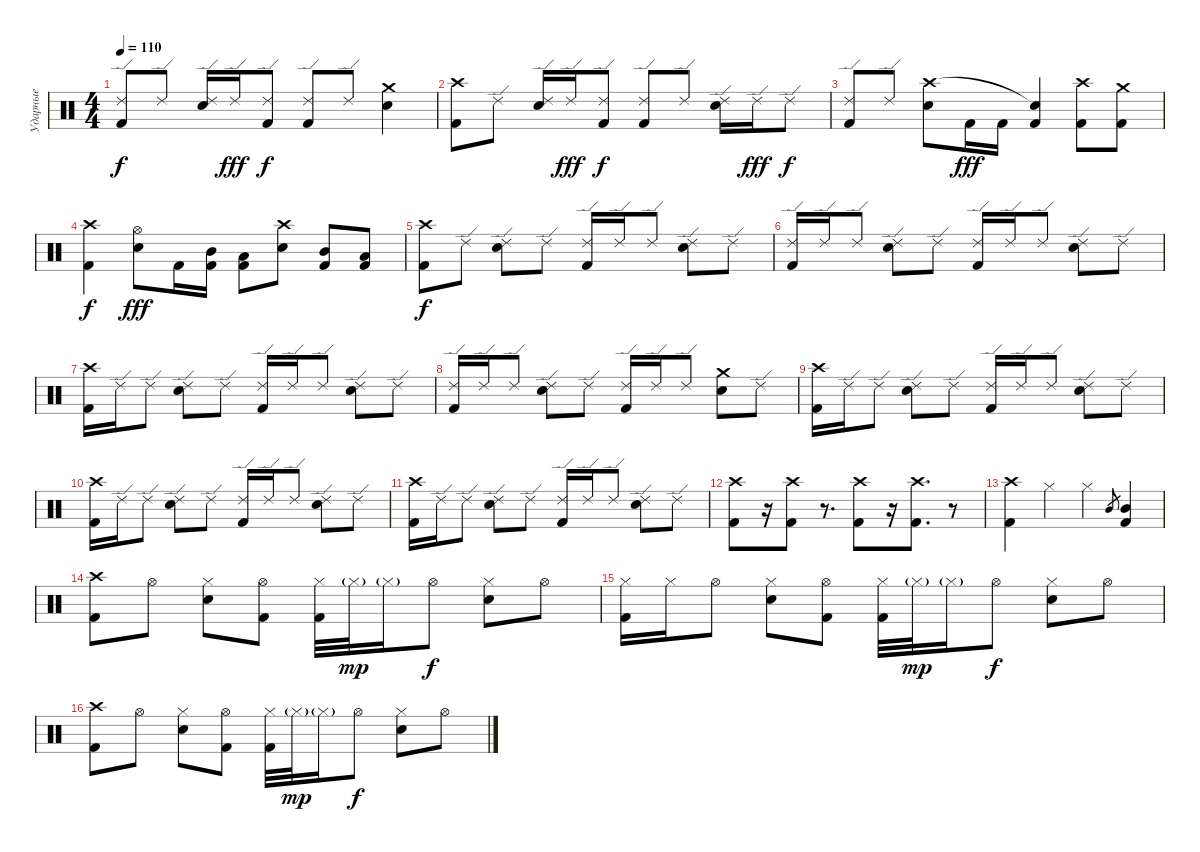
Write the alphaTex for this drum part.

\track ("Ударные" "Ударные") {instrument percussion}
\staff {score}
\articulation defaults
\ts (4 4)
\tempo 110
\clef neutral
\ks c
("Kick (hit) 2" "Ride (edge) 2").8{dy f} "Ride (edge) 2".8 ("Electric Snare (hit)" "Ride (edge) 2").16 "Ride (edge) 2".16{dy fff} ("Kick (hit) 2" "Ride (edge) 2").8{dy f} ("Kick (hit) 2" "Ride (edge) 2").8 "Ride (edge) 2".8 ("Electric Snare (hit)" "Crash medium (hit)").4 |
("Kick (hit) 2" "Crash high (hit)").8 "Ride (edge) 2".8 ("Electric Snare (hit)" "Ride (edge) 2").16 "Ride (edge) 2".16{dy fff} ("Kick (hit) 2" "Ride (edge) 2").8{dy f} ("Kick (hit) 2" "Ride (edge) 2").8 "Ride (edge) 2".8 ("Electric Snare (hit)" "Ride (edge) 2").16 "Ride (edge) 2".16{dy fff} "Ride (edge) 2".8{dy f} |
("Kick (hit) 2" "Ride (edge) 2").8 "Ride (edge) 2".8 ("Electric Snare (hit)" "Crash high (hit)").8 "Kick (hit) 2".16{dy fff} "Kick (hit) 2".16 ("Kick (hit) 2" "Snare (hit)"{t}).4 ("Kick (hit) 2" "Crash high (hit)").8 ("Kick (hit) 2" "Crash medium (hit)").8 |
("Kick (hit) 2" "Crash high (hit)").4{dy f} ("Electric Snare (hit)" "Hi-Hat (open)").8{dy fff} "Kick (hit) 2".16 ("Kick (hit) 2" "Mid Tom (hit)").16 ("Kick (hit) 2" "Low Tom (hit)").8 ("Electric Snare (hit)" "Crash high (hit)").8 ("Kick (hit) 2" "Mid Tom (hit)").8 ("Kick (hit) 2" "Low Tom (hit)").8 |
("Kick (hit) 2" "Crash high (hit)").8{dy f} "Ride (edge) 2".8 ("Electric Snare (hit)" "Ride (edge) 2").8 "Ride (edge) 2".8 ("Kick (hit) 2" "Ride (edge) 2").16 "Ride (edge) 2".16 "Ride (edge) 2".8 ("Electric Snare (hit)" "Ride (edge) 2").8 "Ride (edge) 2".8 |
("Kick (hit) 2" "Ride (edge) 2").16 "Ride (edge) 2".16 "Ride (edge) 2".8 ("Electric Snare (hit)" "Ride (edge) 2").8 "Ride (edge) 2".8 ("Kick (hit) 2" "Ride (edge) 2").16 "Ride (edge) 2".16 "Ride (edge) 2".8 ("Electric Snare (hit)" "Ride (edge) 2").8 "Ride (edge) 2".8 |
("Kick (hit) 2" "Crash high (hit)").16 "Ride (edge) 2".16 "Ride (edge) 2".8 ("Electric Snare (hit)" "Ride (edge) 2").8 "Ride (edge) 2".8 ("Kick (hit) 2" "Ride (edge) 2").16 "Ride (edge) 2".16 "Ride (edge) 2".8 ("Electric Snare (hit)" "Ride (edge) 2").8 "Ride (edge) 2".8 |
("Kick (hit) 2" "Ride (edge) 2").16 "Ride (edge) 2".16 "Ride (edge) 2".8 ("Electric Snare (hit)" "Ride (edge) 2").8 "Ride (edge) 2".8 ("Kick (hit) 2" "Ride (edge) 2").16 "Ride (edge) 2".16 "Ride (edge) 2".8 ("Electric Snare (hit)" "Crash medium (hit)").8 "Ride (edge) 2".8 |
("Kick (hit) 2" "Crash high (hit)").16 "Ride (edge) 2".16 "Ride (edge) 2".8 ("Electric Snare (hit)" "Ride (edge) 2").8 "Ride (edge) 2".8 ("Kick (hit) 2" "Ride (edge) 2").16 "Ride (edge) 2".16 "Ride (edge) 2".8 ("Electric Snare (hit)" "Ride (edge) 2").8 "Ride (edge) 2".8 |
("Kick (hit) 2" "Crash high (hit)").16 "Ride (edge) 2".16 "Ride (edge) 2".8 ("Electric Snare (hit)" "Ride (edge) 2").8 "Ride (edge) 2".8 ("Kick (hit) 2" "Ride (edge) 2").16 "Ride (edge) 2".16 "Ride (edge) 2".8 ("Electric Snare (hit)" "Ride (edge) 2").8 "Ride (edge) 2".8 |
("Kick (hit) 2" "Crash high (hit)").16 "Ride (edge) 2".16 "Ride (edge) 2".8 ("Electric Snare (hit)" "Ride (edge) 2").8 "Ride (edge) 2".8 ("Kick (hit) 2" "Ride (edge) 2").16 "Ride (edge) 2".16 "Ride (edge) 2".8 ("Electric Snare (hit)" "Ride (edge) 2").8 "Ride (edge) 2".8 |
("Kick (hit) 2" "Crash high (hit)").8 r.16 ("Kick (hit) 2" "Crash high (hit)").8 r.8{d} ("Kick (hit) 2" "Crash high (hit)").8 r.16 ("Kick (hit) 2" "Crash high (hit)").8{d} r.8 |
("Kick (hit) 2" "Crash high (hit)").4 "Hi-Hat (closed)".4 "Hi-Hat (closed)".4 "Mid Tom (hit)".8{gr} ("Kick (hit) 2" "Mid Tom (hit)").4 |
("Kick (hit) 2" "Crash high (hit)").8 "Hi-Hat (open)".8 ("Electric Snare (hit)" "Hi-Hat (closed)").8 ("Kick (hit) 2" "Hi-Hat (open)").8 ("Kick (hit) 2" "Hi-Hat (closed)").32 "Hi-Hat (closed)"{g}.32{dy mp} "Hi-Hat (closed)"{g}.16 "Hi-Hat (open)".8{dy f} ("Electric Snare (hit)" "Hi-Hat (closed)").8 "Hi-Hat (open)".8 |
("Kick (hit) 2" "Hi-Hat (closed)").16 "Hi-Hat (closed)".16 "Hi-Hat (open)".8 ("Electric Snare (hit)" "Hi-Hat (closed)").8 ("Kick (hit) 2" "Hi-Hat (open)").8 ("Kick (hit) 2" "Hi-Hat (closed)").32 "Hi-Hat (closed)"{g}.32{dy mp} "Hi-Hat (closed)"{g}.16 "Hi-Hat (open)".8{dy f} ("Electric Snare (hit)" "Hi-Hat (closed)").8 "Hi-Hat (open)".8 |
("Kick (hit) 2" "Crash high (hit)").8 "Hi-Hat (open)".8 ("Electric Snare (hit)" "Hi-Hat (closed)").8 ("Kick (hit) 2" "Hi-Hat (open)").8 ("Kick (hit) 2" "Hi-Hat (closed)").32 "Hi-Hat (closed)"{g}.32{dy mp} "Hi-Hat (closed)"{g}.16 "Hi-Hat (open)".8{dy f} ("Electric Snare (hit)" "Hi-Hat (closed)").8 "Hi-Hat (open)".8
